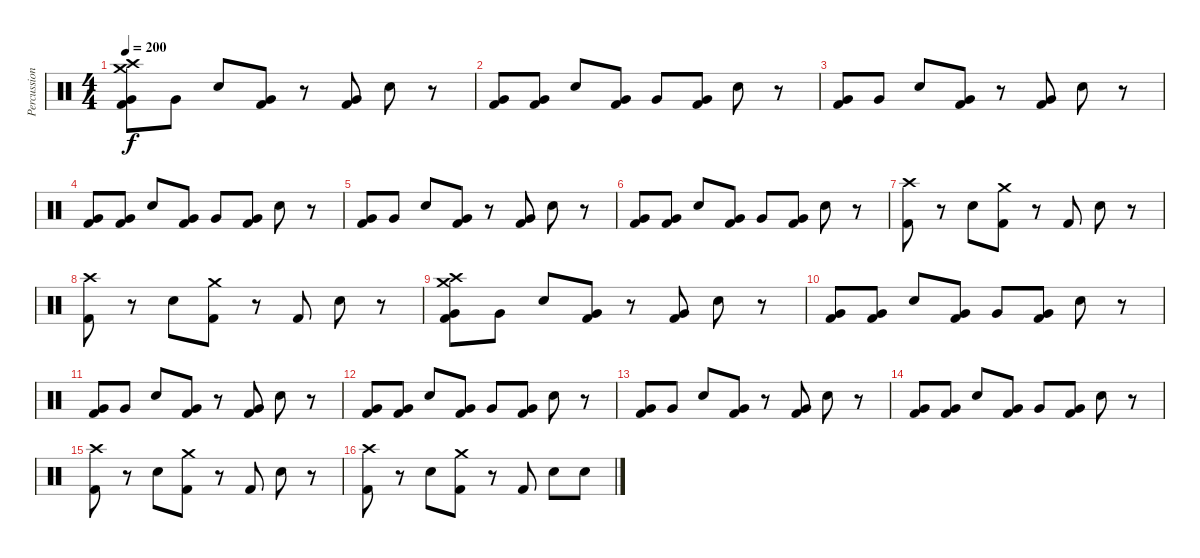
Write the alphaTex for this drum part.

\track ("Percussion" "Percussion") {instrument percussion}
\staff {score}
\articulation defaults
\ts (4 4)
\tempo 200
\clef neutral
\ks c
("Crash high (hit)" "Crash medium (hit)" "Very Low Tom (hit)" "Kick (hit) 2").8{dy f} "Very Low Tom (hit)".8 "Snare (hit) 2".8 ("Very Low Tom (hit)" "Kick (hit) 2").8 r.8 ("Very Low Tom (hit)" "Kick (hit) 2").8 "Snare (hit) 2".8 r.8 |
("Very Low Tom (hit)" "Kick (hit) 2").8 ("Very Low Tom (hit)" "Kick (hit) 2").8 "Snare (hit) 2".8 ("Very Low Tom (hit)" "Kick (hit) 2").8 "Very Low Tom (hit)".8 ("Very Low Tom (hit)" "Kick (hit) 2").8 "Snare (hit) 2".8 r.8 |
("Very Low Tom (hit)" "Kick (hit) 2").8 "Very Low Tom (hit)".8 "Snare (hit) 2".8 ("Very Low Tom (hit)" "Kick (hit) 2").8 r.8 ("Very Low Tom (hit)" "Kick (hit) 2").8 "Snare (hit) 2".8 r.8 |
("Very Low Tom (hit)" "Kick (hit) 2").8 ("Very Low Tom (hit)" "Kick (hit) 2").8 "Snare (hit) 2".8 ("Very Low Tom (hit)" "Kick (hit) 2").8 "Very Low Tom (hit)".8 ("Very Low Tom (hit)" "Kick (hit) 2").8 "Snare (hit) 2".8 r.8 |
("Very Low Tom (hit)" "Kick (hit) 2").8 "Very Low Tom (hit)".8 "Snare (hit) 2".8 ("Very Low Tom (hit)" "Kick (hit) 2").8 r.8 ("Very Low Tom (hit)" "Kick (hit) 2").8 "Snare (hit) 2".8 r.8 |
("Very Low Tom (hit)" "Kick (hit) 2").8 ("Very Low Tom (hit)" "Kick (hit) 2").8 "Snare (hit) 2".8 ("Very Low Tom (hit)" "Kick (hit) 2").8 "Very Low Tom (hit)".8 ("Very Low Tom (hit)" "Kick (hit) 2").8 "Snare (hit) 2".8 r.8 |
("Crash high (hit)" "Kick (hit) 2").8 r.8 "Snare (hit) 2".8 ("Crash medium (hit)" "Kick (hit) 2").8 r.8 "Kick (hit) 2".8 "Snare (hit) 2".8 r.8 |
("Crash high (hit)" "Kick (hit) 2").8 r.8 "Snare (hit) 2".8 ("Crash medium (hit)" "Kick (hit) 2").8 r.8 "Kick (hit) 2".8 "Snare (hit) 2".8 r.8 |
("Crash high (hit)" "Crash medium (hit)" "Very Low Tom (hit)" "Kick (hit) 2").8 "Very Low Tom (hit)".8 "Snare (hit) 2".8 ("Very Low Tom (hit)" "Kick (hit) 2").8 r.8 ("Very Low Tom (hit)" "Kick (hit) 2").8 "Snare (hit) 2".8 r.8 |
("Very Low Tom (hit)" "Kick (hit) 2").8 ("Very Low Tom (hit)" "Kick (hit) 2").8 "Snare (hit) 2".8 ("Very Low Tom (hit)" "Kick (hit) 2").8 "Very Low Tom (hit)".8 ("Very Low Tom (hit)" "Kick (hit) 2").8 "Snare (hit) 2".8 r.8 |
("Very Low Tom (hit)" "Kick (hit) 2").8 "Very Low Tom (hit)".8 "Snare (hit) 2".8 ("Very Low Tom (hit)" "Kick (hit) 2").8 r.8 ("Very Low Tom (hit)" "Kick (hit) 2").8 "Snare (hit) 2".8 r.8 |
("Very Low Tom (hit)" "Kick (hit) 2").8 ("Very Low Tom (hit)" "Kick (hit) 2").8 "Snare (hit) 2".8 ("Very Low Tom (hit)" "Kick (hit) 2").8 "Very Low Tom (hit)".8 ("Very Low Tom (hit)" "Kick (hit) 2").8 "Snare (hit) 2".8 r.8 |
("Very Low Tom (hit)" "Kick (hit) 2").8 "Very Low Tom (hit)".8 "Snare (hit) 2".8 ("Very Low Tom (hit)" "Kick (hit) 2").8 r.8 ("Very Low Tom (hit)" "Kick (hit) 2").8 "Snare (hit) 2".8 r.8 |
("Very Low Tom (hit)" "Kick (hit) 2").8 ("Very Low Tom (hit)" "Kick (hit) 2").8 "Snare (hit) 2".8 ("Very Low Tom (hit)" "Kick (hit) 2").8 "Very Low Tom (hit)".8 ("Very Low Tom (hit)" "Kick (hit) 2").8 "Snare (hit) 2".8 r.8 |
("Crash high (hit)" "Kick (hit) 2").8 r.8 "Snare (hit) 2".8 ("Crash medium (hit)" "Kick (hit) 2").8 r.8 "Kick (hit) 2".8 "Snare (hit) 2".8 r.8 |
("Crash high (hit)" "Kick (hit) 2").8 r.8 "Snare (hit) 2".8 ("Crash medium (hit)" "Kick (hit) 2").8 r.8 "Kick (hit) 2".8 "Snare (hit) 2".8 "Snare (hit) 2".8
